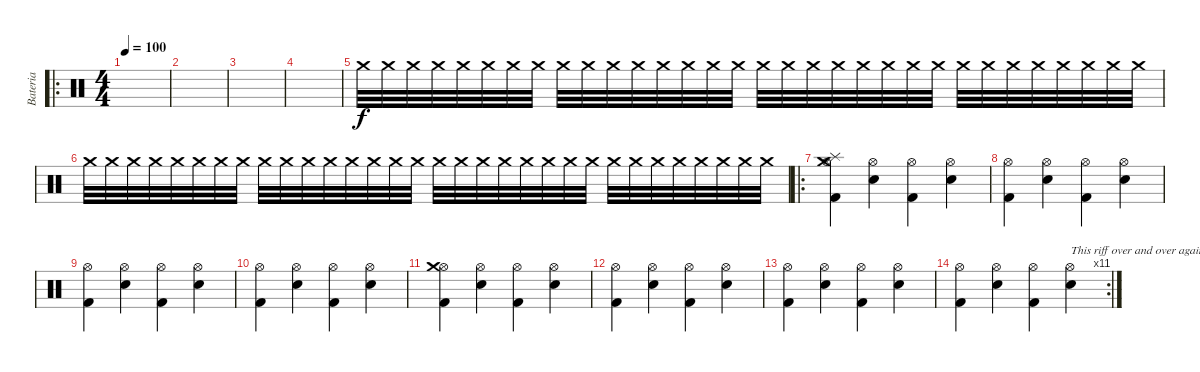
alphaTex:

\track ("Bateria" "Bateria") {instrument percussion}
\staff {score}
\articulation defaults
\ro
\ts (4 4)
\tempo 100
\clef neutral
\ks c
|
|
|
|
"Crash medium (hit)".32{volume 2} "Crash medium (hit)".32 "Crash medium (hit)".32 "Crash medium (hit)".32 "Crash medium (hit)".32 "Crash medium (hit)".32 "Crash medium (hit)".32 "Crash medium (hit)".32 "Crash medium (hit)".32{volume 5} "Crash medium (hit)".32 "Crash medium (hit)".32 "Crash medium (hit)".32 "Crash medium (hit)".32 "Crash medium (hit)".32 "Crash medium (hit)".32 "Crash medium (hit)".32 "Crash medium (hit)".32{volume 7} "Crash medium (hit)".32 "Crash medium (hit)".32 "Crash medium (hit)".32 "Crash medium (hit)".32 "Crash medium (hit)".32 "Crash medium (hit)".32 "Crash medium (hit)".32 "Crash medium (hit)".32{volume 10} "Crash medium (hit)".32 "Crash medium (hit)".32 "Crash medium (hit)".32 "Crash medium (hit)".32 "Crash medium (hit)".32 "Crash medium (hit)".32 "Crash medium (hit)".32 |
"Crash medium (hit)".32{volume 12} "Crash medium (hit)".32 "Crash medium (hit)".32 "Crash medium (hit)".32 "Crash medium (hit)".32 "Crash medium (hit)".32 "Crash medium (hit)".32 "Crash medium (hit)".32 "Crash medium (hit)".32{volume 14} "Crash medium (hit)".32 "Crash medium (hit)".32 "Crash medium (hit)".32 "Crash medium (hit)".32 "Crash medium (hit)".32 "Crash medium (hit)".32 "Crash medium (hit)".32 "Crash medium (hit)".32{volume 16} "Crash medium (hit)".32 "Crash medium (hit)".32 "Crash medium (hit)".32 "Crash medium (hit)".32 "Crash medium (hit)".32 "Crash medium (hit)".32 "Crash medium (hit)".32 "Crash medium (hit)".32 "Crash medium (hit)".32 "Crash medium (hit)".32 "Crash medium (hit)".32 "Crash medium (hit)".32 "Crash medium (hit)".32 "Crash medium (hit)".32 "Crash medium (hit)".32 |
\ro
("Kick (hit) 2" "Hi-Hat (open)" "Splash (hit)" "Crash medium (hit)").4 ("Electric Snare (hit)" "Hi-Hat (open)").4 ("Kick (hit) 2" "Hi-Hat (open)").4 ("Electric Snare (hit)" "Hi-Hat (open)").4 |
("Kick (hit) 2" "Hi-Hat (open)").4 ("Electric Snare (hit)" "Hi-Hat (open)").4 ("Kick (hit) 2" "Hi-Hat (open)").4 ("Electric Snare (hit)" "Hi-Hat (open)").4 |
("Kick (hit) 2" "Hi-Hat (open)").4 ("Electric Snare (hit)" "Hi-Hat (open)").4 ("Kick (hit) 2" "Hi-Hat (open)").4 ("Electric Snare (hit)" "Hi-Hat (open)").4 |
("Kick (hit) 2" "Hi-Hat (open)").4 ("Electric Snare (hit)" "Hi-Hat (open)").4 ("Kick (hit) 2" "Hi-Hat (open)").4 ("Electric Snare (hit)" "Hi-Hat (open)").4 |
("Kick (hit) 2" "Hi-Hat (open)" "Crash medium (hit)").4 ("Electric Snare (hit)" "Hi-Hat (open)").4 ("Kick (hit) 2" "Hi-Hat (open)").4 ("Electric Snare (hit)" "Hi-Hat (open)").4 |
("Kick (hit) 2" "Hi-Hat (open)").4 ("Electric Snare (hit)" "Hi-Hat (open)").4 ("Kick (hit) 2" "Hi-Hat (open)").4 ("Electric Snare (hit)" "Hi-Hat (open)").4 |
("Kick (hit) 2" "Hi-Hat (open)").4 ("Electric Snare (hit)" "Hi-Hat (open)").4 ("Kick (hit) 2" "Hi-Hat (open)").4 ("Electric Snare (hit)" "Hi-Hat (open)").4 |
\rc 11
("Kick (hit) 2" "Hi-Hat (open)").4 ("Electric Snare (hit)" "Hi-Hat (open)").4 ("Kick (hit) 2" "Hi-Hat (open)").4 ("Electric Snare (hit)" "Hi-Hat (open)").4{txt "This riff over and over again ´till the end"}
